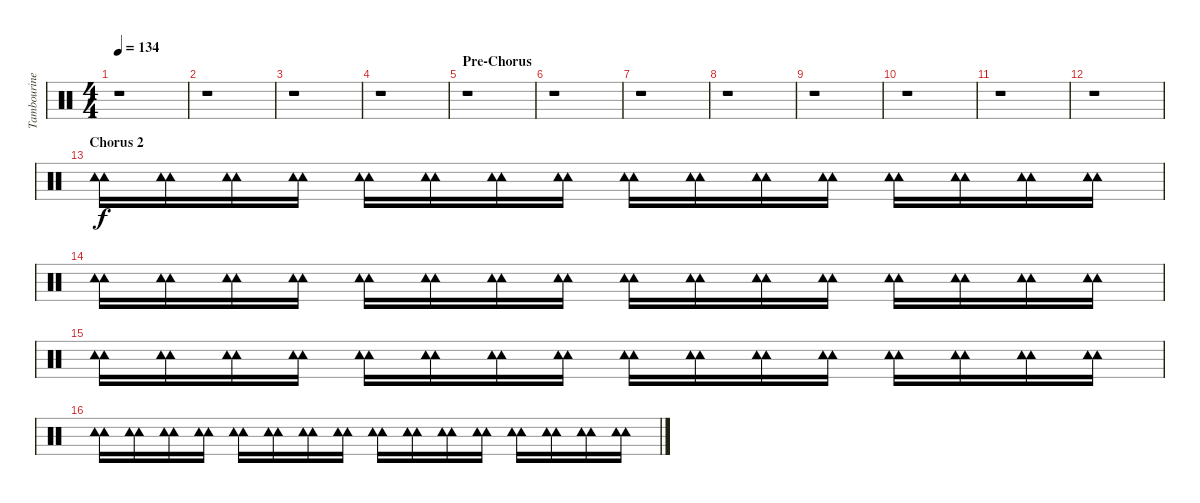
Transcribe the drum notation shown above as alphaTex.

\track ("Tambourine" "Tambourine") {instrument percussion}
\staff {score}
\articulation defaults
\ts (4 4)
\tempo 134
\clef neutral
\ks c
r.1{dy f} |
r.1 |
r.1 |
r.1 |
\section ("" "Pre-Chorus")
r.1 |
r.1 |
r.1 |
r.1 |
r.1 |
r.1 |
r.1 |
r.1 |
\section ("" "Chorus 2")
("Tambourine (hit)" "Tambourine (hit)").16 ("Tambourine (hit)" "Tambourine (hit)").16 ("Tambourine (hit)" "Tambourine (hit)").16 ("Tambourine (hit)" "Tambourine (hit)").16 ("Tambourine (hit)" "Tambourine (hit)").16 ("Tambourine (hit)" "Tambourine (hit)").16 ("Tambourine (hit)" "Tambourine (hit)").16 ("Tambourine (hit)" "Tambourine (hit)").16 ("Tambourine (hit)" "Tambourine (hit)").16 ("Tambourine (hit)" "Tambourine (hit)").16 ("Tambourine (hit)" "Tambourine (hit)").16 ("Tambourine (hit)" "Tambourine (hit)").16 ("Tambourine (hit)" "Tambourine (hit)").16 ("Tambourine (hit)" "Tambourine (hit)").16 ("Tambourine (hit)" "Tambourine (hit)").16 ("Tambourine (hit)" "Tambourine (hit)").16 |
("Tambourine (hit)" "Tambourine (hit)").16 ("Tambourine (hit)" "Tambourine (hit)").16 ("Tambourine (hit)" "Tambourine (hit)").16 ("Tambourine (hit)" "Tambourine (hit)").16 ("Tambourine (hit)" "Tambourine (hit)").16 ("Tambourine (hit)" "Tambourine (hit)").16 ("Tambourine (hit)" "Tambourine (hit)").16 ("Tambourine (hit)" "Tambourine (hit)").16 ("Tambourine (hit)" "Tambourine (hit)").16 ("Tambourine (hit)" "Tambourine (hit)").16 ("Tambourine (hit)" "Tambourine (hit)").16 ("Tambourine (hit)" "Tambourine (hit)").16 ("Tambourine (hit)" "Tambourine (hit)").16 ("Tambourine (hit)" "Tambourine (hit)").16 ("Tambourine (hit)" "Tambourine (hit)").16 ("Tambourine (hit)" "Tambourine (hit)").16 |
("Tambourine (hit)" "Tambourine (hit)").16 ("Tambourine (hit)" "Tambourine (hit)").16 ("Tambourine (hit)" "Tambourine (hit)").16 ("Tambourine (hit)" "Tambourine (hit)").16 ("Tambourine (hit)" "Tambourine (hit)").16 ("Tambourine (hit)" "Tambourine (hit)").16 ("Tambourine (hit)" "Tambourine (hit)").16 ("Tambourine (hit)" "Tambourine (hit)").16 ("Tambourine (hit)" "Tambourine (hit)").16 ("Tambourine (hit)" "Tambourine (hit)").16 ("Tambourine (hit)" "Tambourine (hit)").16 ("Tambourine (hit)" "Tambourine (hit)").16 ("Tambourine (hit)" "Tambourine (hit)").16 ("Tambourine (hit)" "Tambourine (hit)").16 ("Tambourine (hit)" "Tambourine (hit)").16 ("Tambourine (hit)" "Tambourine (hit)").16 |
("Tambourine (hit)" "Tambourine (hit)").16 ("Tambourine (hit)" "Tambourine (hit)").16 ("Tambourine (hit)" "Tambourine (hit)").16 ("Tambourine (hit)" "Tambourine (hit)").16 ("Tambourine (hit)" "Tambourine (hit)").16 ("Tambourine (hit)" "Tambourine (hit)").16 ("Tambourine (hit)" "Tambourine (hit)").16 ("Tambourine (hit)" "Tambourine (hit)").16 ("Tambourine (hit)" "Tambourine (hit)").16 ("Tambourine (hit)" "Tambourine (hit)").16 ("Tambourine (hit)" "Tambourine (hit)").16 ("Tambourine (hit)" "Tambourine (hit)").16 ("Tambourine (hit)" "Tambourine (hit)").16 ("Tambourine (hit)" "Tambourine (hit)").16 ("Tambourine (hit)" "Tambourine (hit)").16 ("Tambourine (hit)" "Tambourine (hit)").16
